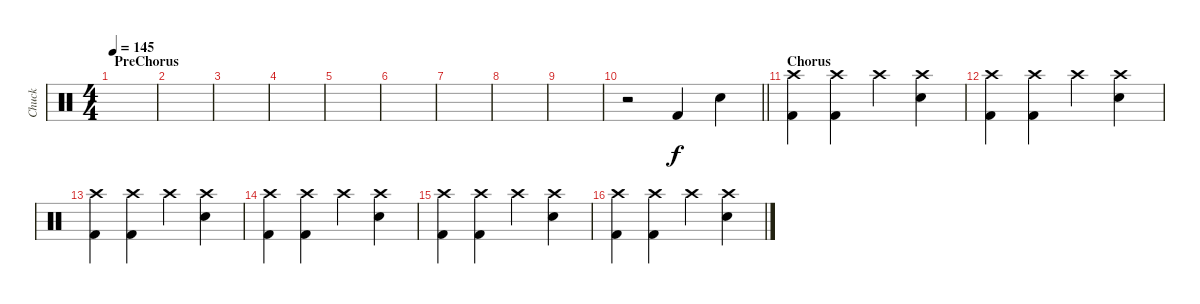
\track ("Chuck" "Chuck") {instrument percussion}
\staff {score}
\articulation defaults
\ts (4 4)
\section ("" "PreChorus")
\tempo 145
\clef neutral
\ks c
|
|
|
|
|
|
|
|
|
\barLineRight lightlight
r.2 "Kick (hit) 2".4 "Snare (hit) 2".4 |
\section ("" "Chorus")
("Crash high (hit)" "Kick (hit) 2").4 ("Crash high (hit)" "Kick (hit) 2").4 "Crash high (hit)".4 ("Crash high (hit)" "Snare (hit) 2").4 |
("Crash high (hit)" "Kick (hit) 2").4 ("Crash high (hit)" "Kick (hit) 2").4 "Crash high (hit)".4 ("Crash high (hit)" "Snare (hit) 2").4 |
("Crash high (hit)" "Kick (hit) 2").4 ("Crash high (hit)" "Kick (hit) 2").4 "Crash high (hit)".4 ("Crash high (hit)" "Snare (hit) 2").4 |
("Crash high (hit)" "Kick (hit) 2").4 ("Crash high (hit)" "Kick (hit) 2").4 "Crash high (hit)".4 ("Crash high (hit)" "Snare (hit) 2").4 |
("Crash high (hit)" "Kick (hit) 2").4 ("Crash high (hit)" "Kick (hit) 2").4 "Crash high (hit)".4 ("Crash high (hit)" "Snare (hit) 2").4 |
("Crash high (hit)" "Kick (hit) 2").4 ("Crash high (hit)" "Kick (hit) 2").4 "Crash high (hit)".4 ("Crash high (hit)" "Snare (hit) 2").4
